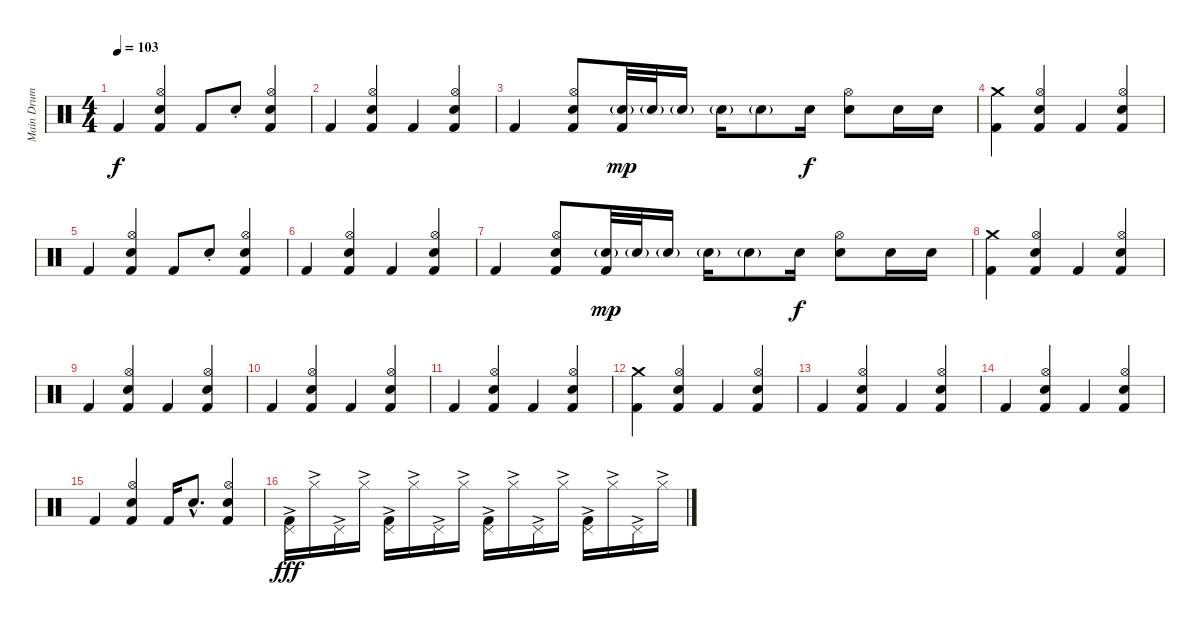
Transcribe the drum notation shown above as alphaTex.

\track ("Main Drum" "Main Drum") {instrument percussion}
\staff {score}
\articulation defaults
\ts (4 4)
\tempo 103
\clef neutral
\ks c "Kick (hit) 2".4{dy f}
("Hi-Hat (open)" "Electric Snare (hit)" "Kick (hit) 2").4 "Kick (hit) 2".8 "Electric Snare (hit)"{st}.8 ("Hi-Hat (open)" "Electric Snare (hit)" "Kick (hit) 2").4 |
"Kick (hit) 2".4 ("Hi-Hat (open)" "Electric Snare (hit)" "Kick (hit) 2").4 "Kick (hit) 2".4 ("Hi-Hat (open)" "Electric Snare (hit)" "Kick (hit) 2").4 |
"Kick (hit) 2".4 ("Hi-Hat (open)" "Electric Snare (hit)" "Kick (hit) 2").8 ("Electric Snare (hit)"{g} "Kick (hit) 2").32{dy mp} "Electric Snare (hit)"{g}.32 "Electric Snare (hit)"{g}.16 "Electric Snare (hit)"{g}.16 "Electric Snare (hit)"{g}.8 "Electric Snare (hit)".16{dy f} ("Hi-Hat (open)" "Electric Snare (hit)").8 "Electric Snare (hit)".16 "Electric Snare (hit)".16 |
("Crash medium (hit)" "Kick (hit) 2").4 ("Hi-Hat (open)" "Electric Snare (hit)" "Kick (hit) 2").4 "Kick (hit) 2".4 ("Hi-Hat (open)" "Electric Snare (hit)" "Kick (hit) 2").4 |
"Kick (hit) 2".4 ("Hi-Hat (open)" "Electric Snare (hit)" "Kick (hit) 2").4 "Kick (hit) 2".8 "Electric Snare (hit)"{st}.8 ("Hi-Hat (open)" "Electric Snare (hit)" "Kick (hit) 2").4 |
"Kick (hit) 2".4 ("Hi-Hat (open)" "Electric Snare (hit)" "Kick (hit) 2").4 "Kick (hit) 2".4 ("Hi-Hat (open)" "Electric Snare (hit)" "Kick (hit) 2").4 |
"Kick (hit) 2".4 ("Hi-Hat (open)" "Electric Snare (hit)" "Kick (hit) 2").8 ("Electric Snare (hit)"{g} "Kick (hit) 2").32{dy mp} "Electric Snare (hit)"{g}.32 "Electric Snare (hit)"{g}.16 "Electric Snare (hit)"{g}.16 "Electric Snare (hit)"{g}.8 "Electric Snare (hit)".16{dy f} ("Hi-Hat (open)" "Electric Snare (hit)").8 "Electric Snare (hit)".16 "Electric Snare (hit)".16 |
("Crash medium (hit)" "Kick (hit) 2").4 ("Hi-Hat (open)" "Electric Snare (hit)" "Kick (hit) 2").4 "Kick (hit) 2".4 ("Hi-Hat (open)" "Electric Snare (hit)" "Kick (hit) 2").4 |
"Kick (hit) 2".4 ("Hi-Hat (open)" "Electric Snare (hit)" "Kick (hit) 2").4 "Kick (hit) 2".4 ("Hi-Hat (open)" "Electric Snare (hit)" "Kick (hit) 2").4 |
"Kick (hit) 2".4 ("Hi-Hat (open)" "Electric Snare (hit)" "Kick (hit) 2").4 "Kick (hit) 2".4 ("Hi-Hat (open)" "Electric Snare (hit)" "Kick (hit) 2").4 |
"Kick (hit) 2".4 ("Hi-Hat (open)" "Electric Snare (hit)" "Kick (hit) 2").4 "Kick (hit) 2".4 ("Hi-Hat (open)" "Electric Snare (hit)" "Kick (hit) 2").4 |
("Crash medium (hit)" "Kick (hit) 2").4 ("Hi-Hat (open)" "Electric Snare (hit)" "Kick (hit) 2").4 "Kick (hit) 2".4 ("Hi-Hat (open)" "Electric Snare (hit)" "Kick (hit) 2").4 |
"Kick (hit) 2".4 ("Hi-Hat (open)" "Electric Snare (hit)" "Kick (hit) 2").4 "Kick (hit) 2".4 ("Hi-Hat (open)" "Electric Snare (hit)" "Kick (hit) 2").4 |
"Kick (hit) 2".4 ("Hi-Hat (open)" "Electric Snare (hit)" "Kick (hit) 2").4 "Kick (hit) 2".4 ("Hi-Hat (open)" "Electric Snare (hit)" "Kick (hit) 2").4 |
"Kick (hit) 2".4 ("Hi-Hat (open)" "Electric Snare (hit)" "Kick (hit) 2").4 "Kick (hit) 2".16 "Electric Snare (hit)"{hac}.8{d} ("Hi-Hat (open)" "Electric Snare (hit)" "Kick (hit) 2").4 |
("Pedal Hi-Hat (hit)"{ac} "Kick (hit) 2"{ac}).16{dy fff} "Hi-Hat (closed)"{ac}.16 "Pedal Hi-Hat (hit)"{ac}.16 "Hi-Hat (closed)"{ac}.16 ("Pedal Hi-Hat (hit)"{ac} "Kick (hit) 2"{ac}).16 "Hi-Hat (closed)"{ac}.16 "Pedal Hi-Hat (hit)"{ac}.16 "Hi-Hat (closed)"{ac}.16 ("Pedal Hi-Hat (hit)"{ac} "Kick (hit) 2"{ac}).16 "Hi-Hat (closed)"{ac}.16 "Pedal Hi-Hat (hit)"{ac}.16 "Hi-Hat (closed)"{ac}.16 ("Pedal Hi-Hat (hit)"{ac} "Kick (hit) 2"{ac}).16 "Hi-Hat (closed)"{ac}.16 "Pedal Hi-Hat (hit)"{ac}.16 "Hi-Hat (closed)"{ac}.16
